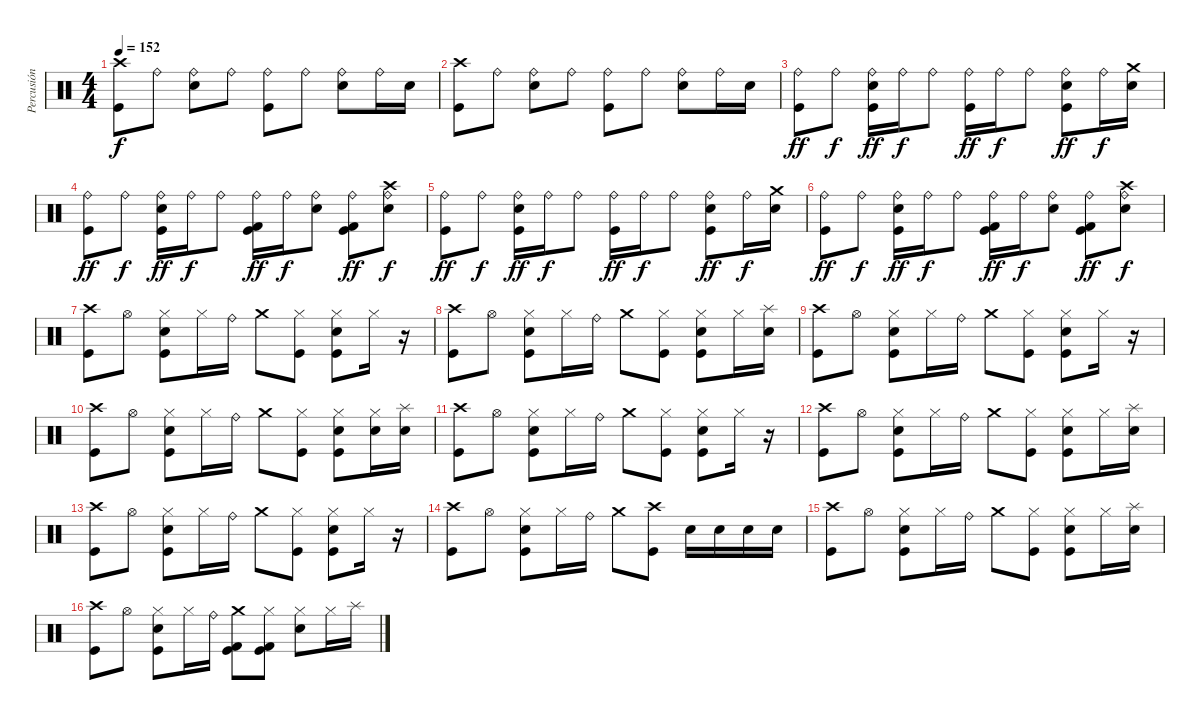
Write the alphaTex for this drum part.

\track ("Percusión" "Percusión") {instrument percussion}
\staff {score}
\articulation defaults
\ts (4 4)
\tempo 152
\clef neutral
\ks c
("Crash high (hit)" "Kick (hit)").8{dy f} "Ride (bell)".8 ("Ride (bell)" "Electric Snare (hit)").8 "Ride (bell)".8 ("Ride (bell)" "Kick (hit)").8 "Ride (bell)".8 ("Ride (bell)" "Electric Snare (hit)").8 "Ride (bell)".16 "Electric Snare (hit)".16 |
("Crash high (hit)" "Kick (hit)").8 "Ride (bell)".8 ("Ride (bell)" "Electric Snare (hit)").8 "Ride (bell)".8 ("Ride (bell)" "Kick (hit)").8 "Ride (bell)".8 ("Ride (bell)" "Electric Snare (hit)").8 "Ride (bell)".16 "Electric Snare (hit)".16 |
("Ride (bell)" "Kick (hit)").8{dy ff} "Ride (bell)".8{dy f} ("Ride (bell)" "Electric Snare (hit)" "Kick (hit)").16{dy ff} "Ride (bell)".16{dy f} "Ride (bell)".8 ("Ride (bell)" "Kick (hit)").16{dy ff} "Ride (bell)".16{dy f} "Ride (bell)".8 ("Ride (bell)" "Electric Snare (hit)" "Kick (hit)").8{dy ff} "Ride (bell)".16{dy f} ("Crash medium (hit)" "Electric Snare (hit)").16 |
("Ride (bell)" "Kick (hit)").8{dy ff} "Ride (bell)".8{dy f} ("Ride (bell)" "Electric Snare (hit)" "Kick (hit)").16{dy ff} "Ride (bell)".16{dy f} "Ride (bell)".8 ("Ride (bell)" "Kick (hit) 2" "Kick (hit)").16{dy ff} "Ride (bell)".16{dy f} ("Ride (bell)" "Electric Snare (hit)").8 ("Ride (bell)" "Kick (hit) 2" "Kick (hit)").8{dy ff} ("Ride (bell)" "Crash high (hit)" "Electric Snare (hit)").8{dy f} |
("Ride (bell)" "Kick (hit)").8{dy ff} "Ride (bell)".8{dy f} ("Ride (bell)" "Electric Snare (hit)" "Kick (hit)").16{dy ff} "Ride (bell)".16{dy f} "Ride (bell)".8 ("Ride (bell)" "Kick (hit)").16{dy ff} "Ride (bell)".16{dy f} "Ride (bell)".8 ("Ride (bell)" "Electric Snare (hit)" "Kick (hit)").8{dy ff} "Ride (bell)".16{dy f} ("Crash medium (hit)" "Electric Snare (hit)").16 |
("Ride (bell)" "Kick (hit)").8{dy ff} "Ride (bell)".8{dy f} ("Ride (bell)" "Electric Snare (hit)" "Kick (hit)").16{dy ff} "Ride (bell)".16{dy f} "Ride (bell)".8 ("Ride (bell)" "Kick (hit) 2" "Kick (hit)").16{dy ff} "Ride (bell)".16{dy f} ("Ride (bell)" "Electric Snare (hit)").8 ("Ride (bell)" "Kick (hit) 2" "Kick (hit)").8{dy ff} ("Ride (bell)" "Crash high (hit)" "Electric Snare (hit)").8{dy f} |
("Crash high (hit)" "Kick (hit)").8 "Hi-Hat (open)".8 ("Hi-Hat (closed)" "Electric Snare (hit)" "Kick (hit)").8 "Hi-Hat (closed)".16 "Ride (bell)".16 "Crash medium (hit)".8 ("Hi-Hat (closed)" "Kick (hit)").8 ("Hi-Hat (closed)" "Electric Snare (hit)" "Kick (hit)").8 "Hi-Hat (closed)".16 r.16 |
("Crash high (hit)" "Kick (hit)").8 "Hi-Hat (open)".8 ("Hi-Hat (closed)" "Electric Snare (hit)" "Kick (hit)").8 "Hi-Hat (closed)".16 "Ride (bell)".16 "Crash medium (hit)".8 ("Hi-Hat (closed)" "Kick (hit)").8 ("Hi-Hat (closed)" "Electric Snare (hit)" "Kick (hit)").8 "Hi-Hat (closed)".16 ("Splash (hit)" "Electric Snare (hit)").16 |
("Crash high (hit)" "Kick (hit)").8 "Hi-Hat (open)".8 ("Hi-Hat (closed)" "Electric Snare (hit)" "Kick (hit)").8 "Hi-Hat (closed)".16 "Ride (bell)".16 "Crash medium (hit)".8 ("Hi-Hat (closed)" "Kick (hit)").8 ("Hi-Hat (closed)" "Electric Snare (hit)" "Kick (hit)").8 "Hi-Hat (closed)".16 r.16 |
("Crash high (hit)" "Kick (hit)").8 "Hi-Hat (open)".8 ("Hi-Hat (closed)" "Electric Snare (hit)" "Kick (hit)").8 "Hi-Hat (closed)".16 "Ride (bell)".16 "Crash medium (hit)".8 ("Hi-Hat (closed)" "Kick (hit)").8 ("Hi-Hat (closed)" "Electric Snare (hit)" "Kick (hit)").8 ("Hi-Hat (closed)" "Electric Snare (hit)").16 ("Splash (hit)" "Electric Snare (hit)").16 |
("Crash high (hit)" "Kick (hit)").8 "Hi-Hat (open)".8 ("Hi-Hat (closed)" "Electric Snare (hit)" "Kick (hit)").8 "Hi-Hat (closed)".16 "Ride (bell)".16 "Crash medium (hit)".8 ("Hi-Hat (closed)" "Kick (hit)").8 ("Hi-Hat (closed)" "Electric Snare (hit)" "Kick (hit)").8 "Hi-Hat (closed)".16 r.16 |
("Crash high (hit)" "Kick (hit)").8 "Hi-Hat (open)".8 ("Hi-Hat (closed)" "Electric Snare (hit)" "Kick (hit)").8 "Hi-Hat (closed)".16 "Ride (bell)".16 "Crash medium (hit)".8 ("Hi-Hat (closed)" "Kick (hit)").8 ("Hi-Hat (closed)" "Electric Snare (hit)" "Kick (hit)").8 "Hi-Hat (closed)".16 ("Splash (hit)" "Electric Snare (hit)").16 |
("Crash high (hit)" "Kick (hit)").8 "Hi-Hat (open)".8 ("Hi-Hat (closed)" "Electric Snare (hit)" "Kick (hit)").8 "Hi-Hat (closed)".16 "Ride (bell)".16 "Crash medium (hit)".8 ("Hi-Hat (closed)" "Kick (hit)").8 ("Hi-Hat (closed)" "Electric Snare (hit)" "Kick (hit)").8 "Hi-Hat (closed)".16 r.16 |
("Crash high (hit)" "Kick (hit)").8 "Hi-Hat (open)".8 ("Hi-Hat (closed)" "Electric Snare (hit)" "Kick (hit)").8 "Hi-Hat (closed)".16 "Ride (bell)".16 "Crash medium (hit)".8 ("Crash high (hit)" "Kick (hit)").8 "Electric Snare (hit)".16 "Electric Snare (hit)".16 "Electric Snare (hit)".16 "Electric Snare (hit)".16 |
("Crash high (hit)" "Kick (hit)").8 "Hi-Hat (open)".8 ("Hi-Hat (closed)" "Electric Snare (hit)" "Kick (hit)").8 "Hi-Hat (closed)".16 "Ride (bell)".16 "Crash medium (hit)".8 ("Hi-Hat (closed)" "Kick (hit)").8 ("Hi-Hat (closed)" "Electric Snare (hit)" "Kick (hit)").8 "Hi-Hat (closed)".16 ("Splash (hit)" "Electric Snare (hit)").16 |
("Crash high (hit)" "Kick (hit)").8 "Hi-Hat (open)".8 ("Hi-Hat (closed)" "Electric Snare (hit)" "Kick (hit)").8 "Hi-Hat (closed)".16 "Ride (bell)".16 ("Crash medium (hit)" "Kick (hit) 2" "Kick (hit)").8 ("Hi-Hat (closed)" "Kick (hit) 2" "Kick (hit)").8 ("Hi-Hat (closed)" "Electric Snare (hit)").8 "Hi-Hat (closed)".16 "Splash (hit)".16
